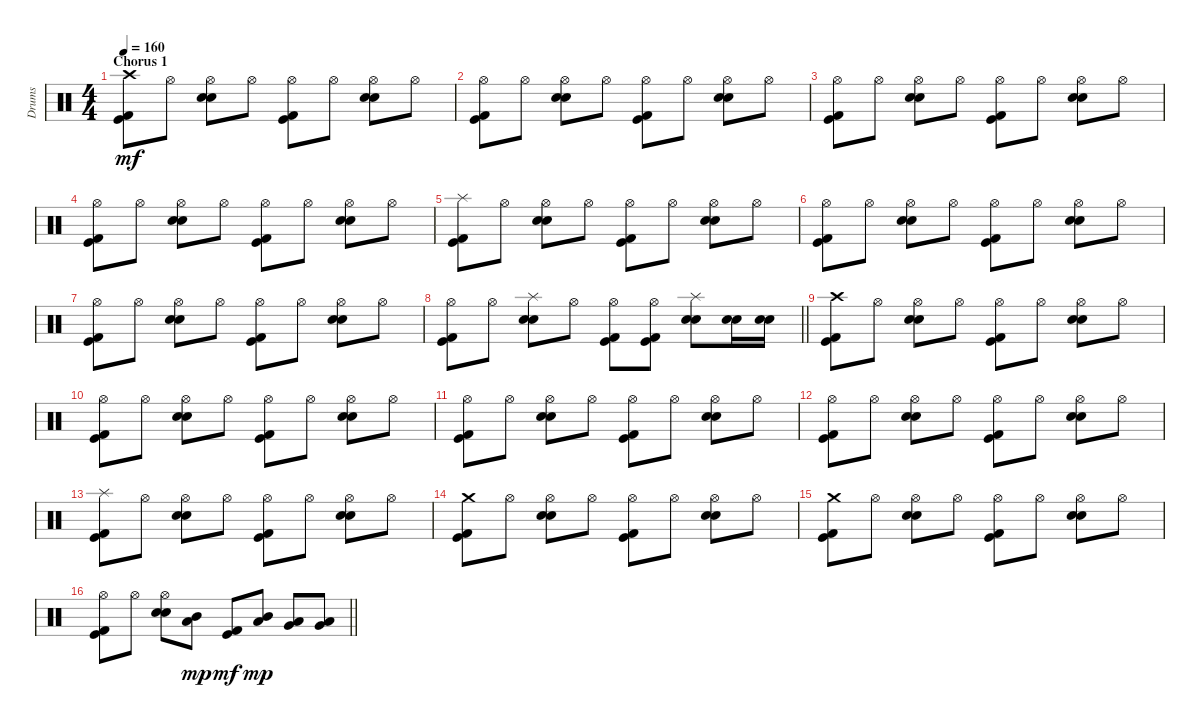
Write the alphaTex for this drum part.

\track ("Drums" "Drums") {instrument percussion}
\staff {score}
\articulation defaults
\ts (4 4)
\section ("" "Chorus 1")
\tempo 160
\clef neutral
\ks c
("Crash high (hit)" "Kick (hit) 2" "Kick (hit)").8{dy mf} "Hi-Hat (open)".8 ("Hi-Hat (open)" "Snare (hit) 2" "Electric Snare (hit)").8 "Hi-Hat (open)".8 ("Hi-Hat (open)" "Kick (hit) 2" "Kick (hit)").8 "Hi-Hat (open)".8 ("Hi-Hat (open)" "Snare (hit) 2" "Electric Snare (hit)").8 "Hi-Hat (open)".8 |
("Hi-Hat (open)" "Kick (hit) 2" "Kick (hit)").8 "Hi-Hat (open)".8 ("Hi-Hat (open)" "Snare (hit) 2" "Electric Snare (hit)").8 "Hi-Hat (open)".8 ("Hi-Hat (open)" "Kick (hit) 2" "Kick (hit)").8 "Hi-Hat (open)".8 ("Hi-Hat (open)" "Snare (hit) 2" "Electric Snare (hit)").8 "Hi-Hat (open)".8 |
("Hi-Hat (open)" "Kick (hit) 2" "Kick (hit)").8 "Hi-Hat (open)".8 ("Hi-Hat (open)" "Snare (hit) 2" "Electric Snare (hit)").8 "Hi-Hat (open)".8 ("Hi-Hat (open)" "Kick (hit) 2" "Kick (hit)").8 "Hi-Hat (open)".8 ("Hi-Hat (open)" "Snare (hit) 2" "Electric Snare (hit)").8 "Hi-Hat (open)".8 |
("Hi-Hat (open)" "Kick (hit) 2" "Kick (hit)").8 "Hi-Hat (open)".8 ("Hi-Hat (open)" "Snare (hit) 2" "Electric Snare (hit)").8 "Hi-Hat (open)".8 ("Hi-Hat (open)" "Kick (hit) 2" "Kick (hit)").8 "Hi-Hat (open)".8 ("Hi-Hat (open)" "Snare (hit) 2" "Electric Snare (hit)").8 "Hi-Hat (open)".8 |
("Splash (hit)" "Kick (hit) 2" "Kick (hit)").8 "Hi-Hat (open)".8 ("Hi-Hat (open)" "Snare (hit) 2" "Electric Snare (hit)").8 "Hi-Hat (open)".8 ("Hi-Hat (open)" "Kick (hit) 2" "Kick (hit)").8 "Hi-Hat (open)".8 ("Hi-Hat (open)" "Snare (hit) 2" "Electric Snare (hit)").8 "Hi-Hat (open)".8 |
("Hi-Hat (open)" "Kick (hit) 2" "Kick (hit)").8 "Hi-Hat (open)".8 ("Hi-Hat (open)" "Snare (hit) 2" "Electric Snare (hit)").8 "Hi-Hat (open)".8 ("Hi-Hat (open)" "Kick (hit) 2" "Kick (hit)").8 "Hi-Hat (open)".8 ("Hi-Hat (open)" "Snare (hit) 2" "Electric Snare (hit)").8 "Hi-Hat (open)".8 |
("Hi-Hat (open)" "Kick (hit) 2" "Kick (hit)").8 "Hi-Hat (open)".8 ("Hi-Hat (open)" "Snare (hit) 2" "Electric Snare (hit)").8 "Hi-Hat (open)".8 ("Hi-Hat (open)" "Kick (hit) 2" "Kick (hit)").8 "Hi-Hat (open)".8 ("Hi-Hat (open)" "Snare (hit) 2" "Electric Snare (hit)").8 "Hi-Hat (open)".8 |
\barLineRight lightlight
("Hi-Hat (open)" "Kick (hit) 2" "Kick (hit)").8 "Hi-Hat (open)".8 ("Splash (hit)" "Snare (hit) 2" "Electric Snare (hit)").8 "Hi-Hat (open)".8 ("Hi-Hat (open)" "Kick (hit) 2" "Kick (hit)").8 ("Hi-Hat (open)" "Kick (hit) 2" "Kick (hit)").8 ("Splash (hit)" "Snare (hit) 2" "Electric Snare (hit)").8 ("Snare (hit) 2" "Electric Snare (hit)").16 ("Snare (hit) 2" "Electric Snare (hit)").16 |
("Crash high (hit)" "Kick (hit) 2" "Kick (hit)").8 "Hi-Hat (open)".8 ("Hi-Hat (open)" "Snare (hit) 2" "Electric Snare (hit)").8 "Hi-Hat (open)".8 ("Hi-Hat (open)" "Kick (hit) 2" "Kick (hit)").8 "Hi-Hat (open)".8 ("Hi-Hat (open)" "Snare (hit) 2" "Electric Snare (hit)").8 "Hi-Hat (open)".8 |
("Hi-Hat (open)" "Kick (hit) 2" "Kick (hit)").8 "Hi-Hat (open)".8 ("Hi-Hat (open)" "Snare (hit) 2" "Electric Snare (hit)").8 "Hi-Hat (open)".8 ("Hi-Hat (open)" "Kick (hit) 2" "Kick (hit)").8 "Hi-Hat (open)".8 ("Hi-Hat (open)" "Snare (hit) 2" "Electric Snare (hit)").8 "Hi-Hat (open)".8 |
("Hi-Hat (open)" "Kick (hit) 2" "Kick (hit)").8 "Hi-Hat (open)".8 ("Hi-Hat (open)" "Snare (hit) 2" "Electric Snare (hit)").8 "Hi-Hat (open)".8 ("Hi-Hat (open)" "Kick (hit) 2" "Kick (hit)").8 "Hi-Hat (open)".8 ("Hi-Hat (open)" "Snare (hit) 2" "Electric Snare (hit)").8 "Hi-Hat (open)".8 |
("Hi-Hat (open)" "Kick (hit) 2" "Kick (hit)").8 "Hi-Hat (open)".8 ("Hi-Hat (open)" "Snare (hit) 2" "Electric Snare (hit)").8 "Hi-Hat (open)".8 ("Hi-Hat (open)" "Kick (hit) 2" "Kick (hit)").8 "Hi-Hat (open)".8 ("Hi-Hat (open)" "Snare (hit) 2" "Electric Snare (hit)").8 "Hi-Hat (open)".8 |
("Splash (hit)" "Kick (hit) 2" "Kick (hit)").8 "Hi-Hat (open)".8 ("Hi-Hat (open)" "Snare (hit) 2" "Electric Snare (hit)").8 "Hi-Hat (open)".8 ("Hi-Hat (open)" "Kick (hit) 2" "Kick (hit)").8 "Hi-Hat (open)".8 ("Hi-Hat (open)" "Snare (hit) 2" "Electric Snare (hit)").8 "Hi-Hat (open)".8 |
("Crash medium (hit)" "Kick (hit) 2" "Kick (hit)").8 "Hi-Hat (open)".8 ("Hi-Hat (open)" "Snare (hit) 2" "Electric Snare (hit)").8 "Hi-Hat (open)".8 ("Hi-Hat (open)" "Kick (hit) 2" "Kick (hit)").8 "Hi-Hat (open)".8 ("Hi-Hat (open)" "Snare (hit) 2" "Electric Snare (hit)").8 "Hi-Hat (open)".8 |
("Crash medium (hit)" "Kick (hit) 2" "Kick (hit)").8 "Hi-Hat (open)".8 ("Hi-Hat (open)" "Snare (hit) 2" "Electric Snare (hit)").8 "Hi-Hat (open)".8 ("Hi-Hat (open)" "Kick (hit) 2" "Kick (hit)").8 "Hi-Hat (open)".8 ("Hi-Hat (open)" "Snare (hit) 2" "Electric Snare (hit)").8 "Hi-Hat (open)".8 |
\barLineRight lightlight
("Hi-Hat (open)" "Kick (hit) 2" "Kick (hit)").8 "Hi-Hat (open)".8 ("Hi-Hat (open)" "Snare (hit) 2" "Electric Snare (hit)").8 ("Mid Tom (hit)" "Low Tom (hit)").8{dy mp} ("Kick (hit) 2" "Kick (hit)").8{dy mf} ("Mid Tom (hit)" "Low Tom (hit)").8{dy mp} ("Low Tom (hit)" "Very Low Tom (hit)").8 ("Very Low Tom (hit)" "Low Floor Tom (hit)").8
